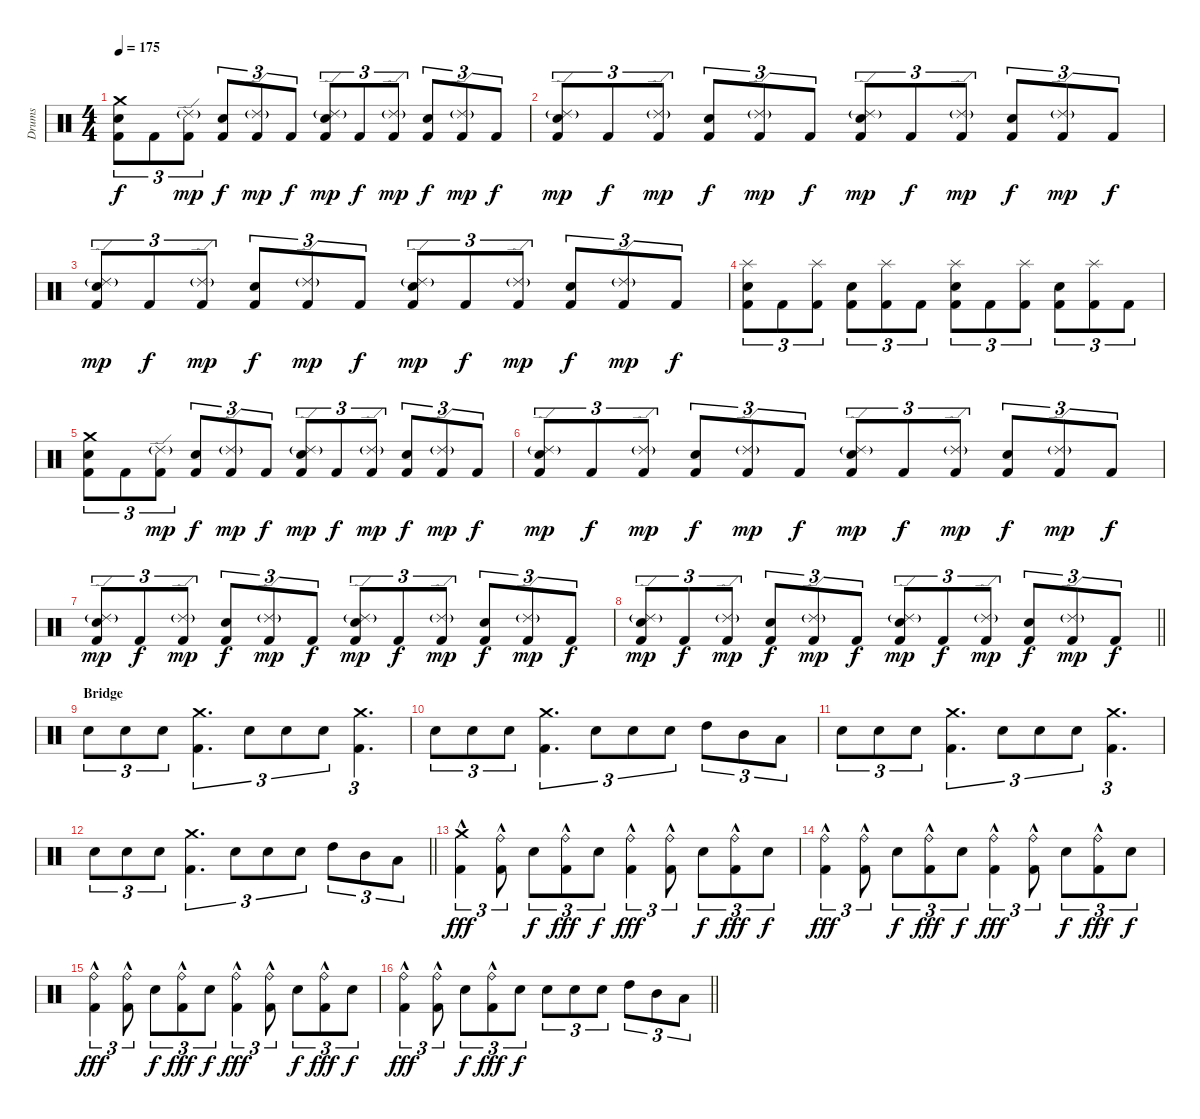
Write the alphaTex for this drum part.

\track ("Drums" "Drums") {instrument percussion}
\staff {score}
\articulation defaults
\ts (4 4)
\section ("" "")
\tempo 175
\clef neutral
\ks c
("Kick (hit) 2" "Snare (hit) 2" "Crash medium (hit)").8{tu (3 2) dy f} "Kick (hit) 2".8{tu (3 2)} ("Kick (hit) 2" "Ride (edge) 2"{g}).8{tu (3 2) dy mp} ("Kick (hit) 2" "Snare (hit) 2").8{tu (3 2) dy f} ("Kick (hit) 2" "Ride (edge) 2"{g}).8{tu (3 2) dy mp} "Kick (hit) 2".8{tu (3 2) dy f} ("Kick (hit) 2" "Snare (hit) 2" "Ride (edge) 2"{g}).8{tu (3 2) dy mp} "Kick (hit) 2".8{tu (3 2) dy f} ("Kick (hit) 2" "Ride (edge) 2"{g}).8{tu (3 2) dy mp} ("Kick (hit) 2" "Snare (hit) 2").8{tu (3 2) dy f} ("Kick (hit) 2" "Ride (edge) 2"{g}).8{tu (3 2) dy mp} "Kick (hit) 2".8{tu (3 2) dy f} |
("Kick (hit) 2" "Snare (hit) 2" "Ride (edge) 2"{g}).8{tu (3 2) dy mp} "Kick (hit) 2".8{tu (3 2) dy f} ("Kick (hit) 2" "Ride (edge) 2"{g}).8{tu (3 2) dy mp} ("Kick (hit) 2" "Snare (hit) 2").8{tu (3 2) dy f} ("Kick (hit) 2" "Ride (edge) 2"{g}).8{tu (3 2) dy mp} "Kick (hit) 2".8{tu (3 2) dy f} ("Kick (hit) 2" "Snare (hit) 2" "Ride (edge) 2"{g}).8{tu (3 2) dy mp} "Kick (hit) 2".8{tu (3 2) dy f} ("Kick (hit) 2" "Ride (edge) 2"{g}).8{tu (3 2) dy mp} ("Kick (hit) 2" "Snare (hit) 2").8{tu (3 2) dy f} ("Kick (hit) 2" "Ride (edge) 2"{g}).8{tu (3 2) dy mp} "Kick (hit) 2".8{tu (3 2) dy f} |
("Kick (hit) 2" "Snare (hit) 2" "Ride (edge) 2"{g}).8{tu (3 2) dy mp} "Kick (hit) 2".8{tu (3 2) dy f} ("Kick (hit) 2" "Ride (edge) 2"{g}).8{tu (3 2) dy mp} ("Kick (hit) 2" "Snare (hit) 2").8{tu (3 2) dy f} ("Kick (hit) 2" "Ride (edge) 2"{g}).8{tu (3 2) dy mp} "Kick (hit) 2".8{tu (3 2) dy f} ("Kick (hit) 2" "Snare (hit) 2" "Ride (edge) 2"{g}).8{tu (3 2) dy mp} "Kick (hit) 2".8{tu (3 2) dy f} ("Kick (hit) 2" "Ride (edge) 2"{g}).8{tu (3 2) dy mp} ("Kick (hit) 2" "Snare (hit) 2").8{tu (3 2) dy f} ("Kick (hit) 2" "Ride (edge) 2"{g}).8{tu (3 2) dy mp} "Kick (hit) 2".8{tu (3 2) dy f} |
("Kick (hit) 2" "Snare (hit) 2" "Splash (hit)").8{tu (3 2)} "Kick (hit) 2".8{tu (3 2)} ("Kick (hit) 2" "Splash (hit)").8{tu (3 2)} ("Kick (hit) 2" "Snare (hit) 2").8{tu (3 2)} ("Kick (hit) 2" "Splash (hit)").8{tu (3 2)} "Kick (hit) 2".8{tu (3 2)} ("Kick (hit) 2" "Snare (hit) 2" "Splash (hit)").8{tu (3 2)} "Kick (hit) 2".8{tu (3 2)} ("Kick (hit) 2" "Splash (hit)").8{tu (3 2)} ("Kick (hit) 2" "Snare (hit) 2").8{tu (3 2)} ("Kick (hit) 2" "Splash (hit)").8{tu (3 2)} "Kick (hit) 2".8{tu (3 2)} |
("Kick (hit) 2" "Snare (hit) 2" "Crash medium (hit)").8{tu (3 2)} "Kick (hit) 2".8{tu (3 2)} ("Kick (hit) 2" "Ride (edge) 2"{g}).8{tu (3 2) dy mp} ("Kick (hit) 2" "Snare (hit) 2").8{tu (3 2) dy f} ("Kick (hit) 2" "Ride (edge) 2"{g}).8{tu (3 2) dy mp} "Kick (hit) 2".8{tu (3 2) dy f} ("Kick (hit) 2" "Snare (hit) 2" "Ride (edge) 2"{g}).8{tu (3 2) dy mp} "Kick (hit) 2".8{tu (3 2) dy f} ("Kick (hit) 2" "Ride (edge) 2"{g}).8{tu (3 2) dy mp} ("Kick (hit) 2" "Snare (hit) 2").8{tu (3 2) dy f} ("Kick (hit) 2" "Ride (edge) 2"{g}).8{tu (3 2) dy mp} "Kick (hit) 2".8{tu (3 2) dy f} |
("Kick (hit) 2" "Snare (hit) 2" "Ride (edge) 2"{g}).8{tu (3 2) dy mp} "Kick (hit) 2".8{tu (3 2) dy f} ("Kick (hit) 2" "Ride (edge) 2"{g}).8{tu (3 2) dy mp} ("Kick (hit) 2" "Snare (hit) 2").8{tu (3 2) dy f} ("Kick (hit) 2" "Ride (edge) 2"{g}).8{tu (3 2) dy mp} "Kick (hit) 2".8{tu (3 2) dy f} ("Kick (hit) 2" "Snare (hit) 2" "Ride (edge) 2"{g}).8{tu (3 2) dy mp} "Kick (hit) 2".8{tu (3 2) dy f} ("Kick (hit) 2" "Ride (edge) 2"{g}).8{tu (3 2) dy mp} ("Kick (hit) 2" "Snare (hit) 2").8{tu (3 2) dy f} ("Kick (hit) 2" "Ride (edge) 2"{g}).8{tu (3 2) dy mp} "Kick (hit) 2".8{tu (3 2) dy f} |
("Kick (hit) 2" "Snare (hit) 2" "Ride (edge) 2"{g}).8{tu (3 2) dy mp} "Kick (hit) 2".8{tu (3 2) dy f} ("Kick (hit) 2" "Ride (edge) 2"{g}).8{tu (3 2) dy mp} ("Kick (hit) 2" "Snare (hit) 2").8{tu (3 2) dy f} ("Kick (hit) 2" "Ride (edge) 2"{g}).8{tu (3 2) dy mp} "Kick (hit) 2".8{tu (3 2) dy f} ("Kick (hit) 2" "Snare (hit) 2" "Ride (edge) 2"{g}).8{tu (3 2) dy mp} "Kick (hit) 2".8{tu (3 2) dy f} ("Kick (hit) 2" "Ride (edge) 2"{g}).8{tu (3 2) dy mp} ("Kick (hit) 2" "Snare (hit) 2").8{tu (3 2) dy f} ("Kick (hit) 2" "Ride (edge) 2"{g}).8{tu (3 2) dy mp} "Kick (hit) 2".8{tu (3 2) dy f} |
\barLineRight lightlight
("Kick (hit) 2" "Snare (hit) 2" "Ride (edge) 2"{g}).8{tu (3 2) dy mp} "Kick (hit) 2".8{tu (3 2) dy f} ("Kick (hit) 2" "Ride (edge) 2"{g}).8{tu (3 2) dy mp} ("Kick (hit) 2" "Snare (hit) 2").8{tu (3 2) dy f} ("Kick (hit) 2" "Ride (edge) 2"{g}).8{tu (3 2) dy mp} "Kick (hit) 2".8{tu (3 2) dy f} ("Kick (hit) 2" "Snare (hit) 2" "Ride (edge) 2"{g}).8{tu (3 2) dy mp} "Kick (hit) 2".8{tu (3 2) dy f} ("Kick (hit) 2" "Ride (edge) 2"{g}).8{tu (3 2) dy mp} ("Kick (hit) 2" "Snare (hit) 2").8{tu (3 2) dy f} ("Kick (hit) 2" "Ride (edge) 2"{g}).8{tu (3 2) dy mp} "Kick (hit) 2".8{tu (3 2) dy f} |
\section ("" "Bridge")
"Snare (hit) 2".8{tu (3 2)} "Snare (hit) 2".8{tu (3 2)} "Snare (hit) 2".8{tu (3 2)} ("Kick (hit) 2" "Crash medium (hit)").4{d tu (3 2)} "Snare (hit) 2".8{tu (3 2)} "Snare (hit) 2".8{tu (3 2)} "Snare (hit) 2".8{tu (3 2)} ("Kick (hit) 2" "Crash medium (hit)").4{d tu (3 2)} |
"Snare (hit) 2".8{tu (3 2)} "Snare (hit) 2".8{tu (3 2)} "Snare (hit) 2".8{tu (3 2)} ("Kick (hit) 2" "Crash medium (hit)").4{d tu (3 2)} "Snare (hit) 2".8{tu (3 2)} "Snare (hit) 2".8{tu (3 2)} "Snare (hit) 2".8{tu (3 2)} "High Tom (hit)".8{tu (3 2)} "Mid Tom (hit)".8{tu (3 2)} "Low Tom (hit)".8{tu (3 2)} |
"Snare (hit) 2".8{tu (3 2)} "Snare (hit) 2".8{tu (3 2)} "Snare (hit) 2".8{tu (3 2)} ("Kick (hit) 2" "Crash medium (hit)").4{d tu (3 2)} "Snare (hit) 2".8{tu (3 2)} "Snare (hit) 2".8{tu (3 2)} "Snare (hit) 2".8{tu (3 2)} ("Kick (hit) 2" "Crash medium (hit)").4{d tu (3 2)} |
\barLineRight lightlight "Snare (hit) 2".8{tu (3 2)} "Snare (hit) 2".8{tu (3 2)} "Snare (hit) 2".8{tu (3 2)}
("Kick (hit) 2" "Crash medium (hit)").4{d tu (3 2)} "Snare (hit) 2".8{tu (3 2)} "Snare (hit) 2".8{tu (3 2)} "Snare (hit) 2".8{tu (3 2)} "High Tom (hit)".8{tu (3 2)} "Mid Tom (hit)".8{tu (3 2)} "Low Tom (hit)".8{tu (3 2)} |
\section ("" "")
("Kick (hit) 2"{hac} "Crash medium (hit)").4{tu (3 2) dy fff} ("Kick (hit) 2"{hac} "Ride (bell)").8{tu (3 2)} "Snare (hit) 2".8{tu (3 2) dy f} ("Kick (hit) 2"{hac} "Ride (bell)").8{tu (3 2) dy fff} "Snare (hit) 2".8{tu (3 2) dy f} ("Kick (hit) 2"{hac} "Ride (bell)").4{tu (3 2) dy fff} ("Kick (hit) 2"{hac} "Ride (bell)").8{tu (3 2)} "Snare (hit) 2".8{tu (3 2) dy f} ("Kick (hit) 2"{hac} "Ride (bell)").8{tu (3 2) dy fff} "Snare (hit) 2".8{tu (3 2) dy f} |
("Kick (hit) 2"{hac} "Ride (bell)").4{tu (3 2) dy fff} ("Kick (hit) 2"{hac} "Ride (bell)").8{tu (3 2)} "Snare (hit) 2".8{tu (3 2) dy f} ("Kick (hit) 2"{hac} "Ride (bell)").8{tu (3 2) dy fff} "Snare (hit) 2".8{tu (3 2) dy f} ("Kick (hit) 2"{hac} "Ride (bell)").4{tu (3 2) dy fff} ("Kick (hit) 2"{hac} "Ride (bell)").8{tu (3 2)} "Snare (hit) 2".8{tu (3 2) dy f} ("Kick (hit) 2"{hac} "Ride (bell)").8{tu (3 2) dy fff} "Snare (hit) 2".8{tu (3 2) dy f} |
("Kick (hit) 2"{hac} "Ride (bell)").4{tu (3 2) dy fff} ("Kick (hit) 2"{hac} "Ride (bell)").8{tu (3 2)} "Snare (hit) 2".8{tu (3 2) dy f} ("Kick (hit) 2"{hac} "Ride (bell)").8{tu (3 2) dy fff} "Snare (hit) 2".8{tu (3 2) dy f} ("Kick (hit) 2"{hac} "Ride (bell)").4{tu (3 2) dy fff} ("Kick (hit) 2"{hac} "Ride (bell)").8{tu (3 2)} "Snare (hit) 2".8{tu (3 2) dy f} ("Kick (hit) 2"{hac} "Ride (bell)").8{tu (3 2) dy fff} "Snare (hit) 2".8{tu (3 2) dy f} |
\barLineRight lightlight
("Kick (hit) 2"{hac} "Ride (bell)").4{tu (3 2) dy fff} ("Kick (hit) 2"{hac} "Ride (bell)").8{tu (3 2)} "Snare (hit) 2".8{tu (3 2) dy f} ("Kick (hit) 2"{hac} "Ride (bell)").8{tu (3 2) dy fff} "Snare (hit) 2".8{tu (3 2) dy f} "Snare (hit) 2".8{tu (3 2)} "Snare (hit) 2".8{tu (3 2)} "Snare (hit) 2".8{tu (3 2)} "High Tom (hit)".8{tu (3 2)} "Mid Tom (hit)".8{tu (3 2)} "Low Tom (hit)".8{tu (3 2)}
